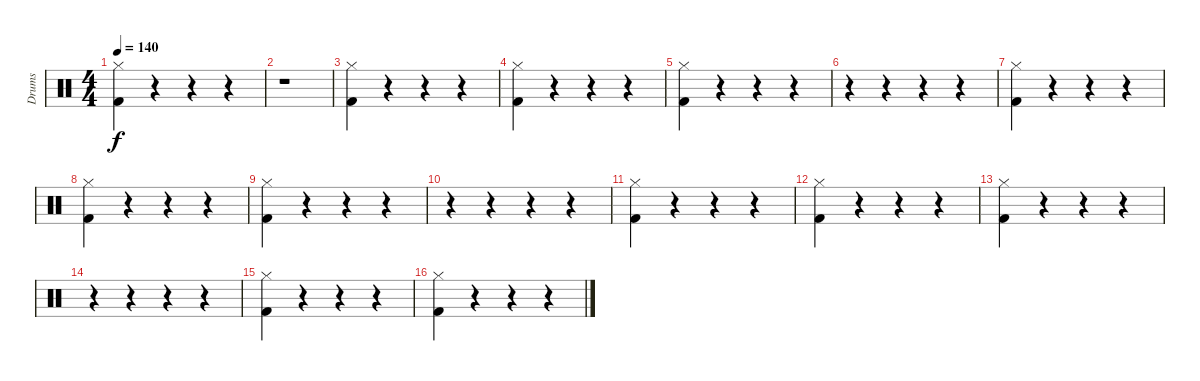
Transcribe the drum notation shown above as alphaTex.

\track ("Drums" "Drums") {instrument percussion}
\staff {score}
\articulation defaults
\ts (4 4)
\tempo 140
\clef neutral
\ks c
("Kick (hit) 2" "Hi-Hat (closed)").4{dy f} r.4 r.4 r.4 |
r.1 |
("Kick (hit) 2" "Hi-Hat (closed)").4 r.4 r.4 r.4 |
("Kick (hit) 2" "Hi-Hat (closed)").4 r.4 r.4 r.4 |
("Kick (hit) 2" "Hi-Hat (closed)").4 r.4 r.4 r.4 |
r.4 r.4 r.4 r.4 |
("Kick (hit) 2" "Hi-Hat (closed)").4 r.4 r.4 r.4 |
("Kick (hit) 2" "Hi-Hat (closed)").4 r.4 r.4 r.4 |
("Kick (hit) 2" "Hi-Hat (closed)").4 r.4 r.4 r.4 |
r.4 r.4 r.4 r.4 |
("Kick (hit) 2" "Hi-Hat (closed)").4 r.4 r.4 r.4 |
("Kick (hit) 2" "Hi-Hat (closed)").4 r.4 r.4 r.4 |
("Kick (hit) 2" "Hi-Hat (closed)").4 r.4 r.4 r.4 |
r.4 r.4 r.4 r.4 |
("Kick (hit) 2" "Hi-Hat (closed)").4 r.4 r.4 r.4 |
("Kick (hit) 2" "Hi-Hat (closed)").4 r.4 r.4 r.4
